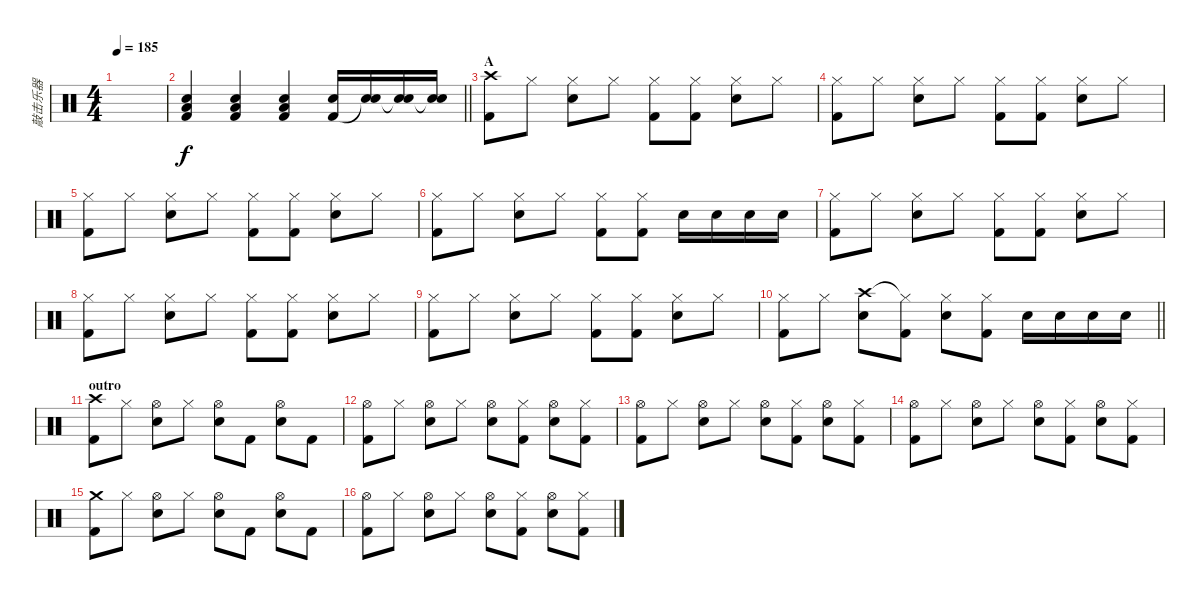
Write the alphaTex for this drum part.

\track ("敲击乐器" "敲击乐器") {instrument percussion}
\staff {score}
\articulation defaults
\ts (4 4)
\tempo 185
\clef neutral
\ks c
|
\barLineRight lightlight
("Low Tom (hit)" "Snare (hit) 2" "Kick (hit) 2").4 ("Low Tom (hit)" "Snare (hit) 2" "Kick (hit) 2").4 ("Low Tom (hit)" "Snare (hit) 2" "Kick (hit) 2").4 ("Snare (hit) 2" "Kick (hit) 2").16 ("Snare (hit) 2" "Snare (hit)"{t}).16 ("Snare (hit) 2" "Snare (hit)"{t}).16 ("Snare (hit) 2" "Snare (hit)"{t}).16 |
\section ("" "A")
("Crash high (hit)" "Kick (hit) 2").8 "Hi-Hat (closed)".8 ("Hi-Hat (closed)" "Snare (hit) 2").8 "Hi-Hat (closed)".8 ("Hi-Hat (closed)" "Kick (hit) 2").8 ("Hi-Hat (closed)" "Kick (hit) 2").8 ("Hi-Hat (closed)" "Snare (hit) 2").8 "Hi-Hat (closed)".8 |
("Hi-Hat (closed)" "Kick (hit) 2").8 "Hi-Hat (closed)".8 ("Hi-Hat (closed)" "Snare (hit) 2").8 "Hi-Hat (closed)".8 ("Hi-Hat (closed)" "Kick (hit) 2").8 ("Hi-Hat (closed)" "Kick (hit) 2").8 ("Hi-Hat (closed)" "Snare (hit) 2").8 "Hi-Hat (closed)".8 |
("Hi-Hat (closed)" "Kick (hit) 2").8 "Hi-Hat (closed)".8 ("Hi-Hat (closed)" "Snare (hit) 2").8 "Hi-Hat (closed)".8 ("Hi-Hat (closed)" "Kick (hit) 2").8 ("Hi-Hat (closed)" "Kick (hit) 2").8 ("Hi-Hat (closed)" "Snare (hit) 2").8 "Hi-Hat (closed)".8 |
("Hi-Hat (closed)" "Kick (hit) 2").8 "Hi-Hat (closed)".8 ("Hi-Hat (closed)" "Snare (hit) 2").8 "Hi-Hat (closed)".8 ("Hi-Hat (closed)" "Kick (hit) 2").8 ("Hi-Hat (closed)" "Kick (hit) 2").8 "Snare (hit) 2".16 "Snare (hit) 2".16 "Snare (hit) 2".16 "Snare (hit) 2".16 |
("Hi-Hat (closed)" "Kick (hit) 2").8 "Hi-Hat (closed)".8 ("Hi-Hat (closed)" "Snare (hit) 2").8 "Hi-Hat (closed)".8 ("Hi-Hat (closed)" "Kick (hit) 2").8 ("Hi-Hat (closed)" "Kick (hit) 2").8 ("Hi-Hat (closed)" "Snare (hit) 2").8 "Hi-Hat (closed)".8 |
("Hi-Hat (closed)" "Kick (hit) 2").8 "Hi-Hat (closed)".8 ("Hi-Hat (closed)" "Snare (hit) 2").8 "Hi-Hat (closed)".8 ("Hi-Hat (closed)" "Kick (hit) 2").8 ("Hi-Hat (closed)" "Kick (hit) 2").8 ("Hi-Hat (closed)" "Snare (hit) 2").8 "Hi-Hat (closed)".8 |
("Hi-Hat (closed)" "Kick (hit) 2").8 "Hi-Hat (closed)".8 ("Hi-Hat (closed)" "Snare (hit) 2").8 "Hi-Hat (closed)".8 ("Hi-Hat (closed)" "Kick (hit) 2").8 ("Hi-Hat (closed)" "Kick (hit) 2").8 ("Hi-Hat (closed)" "Snare (hit) 2").8 "Hi-Hat (closed)".8 |
\barLineRight lightlight
("Hi-Hat (closed)" "Kick (hit) 2").8 "Hi-Hat (closed)".8 ("Crash high (hit)" "Snare (hit) 2").8 ("Hi-Hat (closed)"{t} "Kick (hit) 2").8 ("Hi-Hat (closed)" "Snare (hit) 2").8 ("Hi-Hat (closed)" "Kick (hit) 2").8 "Snare (hit) 2".16 "Snare (hit) 2".16 "Snare (hit) 2".16 "Snare (hit) 2".16 |
\section ("" "outro")
("Crash high (hit)" "Kick (hit) 2").8 "Hi-Hat (closed)".8 ("Hi-Hat (open)" "Snare (hit) 2").8 "Hi-Hat (closed)".8 ("Hi-Hat (open)" "Snare (hit) 2").8 "Kick (hit) 2".8 ("Hi-Hat (open)" "Snare (hit) 2").8 "Kick (hit) 2".8 |
("Hi-Hat (open)" "Kick (hit) 2").8 "Hi-Hat (closed)".8 ("Hi-Hat (open)" "Snare (hit) 2").8 "Hi-Hat (closed)".8 ("Hi-Hat (open)" "Snare (hit) 2").8 ("Hi-Hat (closed)" "Kick (hit) 2").8 ("Hi-Hat (open)" "Snare (hit) 2").8 ("Hi-Hat (closed)" "Kick (hit) 2").8 |
("Hi-Hat (open)" "Kick (hit) 2").8 "Hi-Hat (closed)".8 ("Hi-Hat (open)" "Snare (hit) 2").8 "Hi-Hat (closed)".8 ("Hi-Hat (open)" "Snare (hit) 2").8 ("Hi-Hat (closed)" "Kick (hit) 2").8 ("Hi-Hat (open)" "Snare (hit) 2").8 ("Hi-Hat (closed)" "Kick (hit) 2").8 |
("Hi-Hat (open)" "Kick (hit) 2").8 "Hi-Hat (closed)".8 ("Hi-Hat (open)" "Snare (hit) 2").8 "Hi-Hat (closed)".8 ("Hi-Hat (open)" "Snare (hit) 2").8 ("Hi-Hat (closed)" "Kick (hit) 2").8 ("Hi-Hat (open)" "Snare (hit) 2").8 ("Hi-Hat (closed)" "Kick (hit) 2").8 |
("Crash medium (hit)" "Kick (hit) 2").8 "Hi-Hat (closed)".8 ("Hi-Hat (open)" "Snare (hit) 2").8 "Hi-Hat (closed)".8 ("Hi-Hat (open)" "Snare (hit) 2").8 "Kick (hit) 2".8 ("Hi-Hat (open)" "Snare (hit) 2").8 "Kick (hit) 2".8 |
("Hi-Hat (open)" "Kick (hit) 2").8 "Hi-Hat (closed)".8 ("Hi-Hat (open)" "Snare (hit) 2").8 "Hi-Hat (closed)".8 ("Hi-Hat (open)" "Snare (hit) 2").8 ("Hi-Hat (closed)" "Kick (hit) 2").8 ("Hi-Hat (open)" "Snare (hit) 2").8 ("Hi-Hat (closed)" "Kick (hit) 2").8
